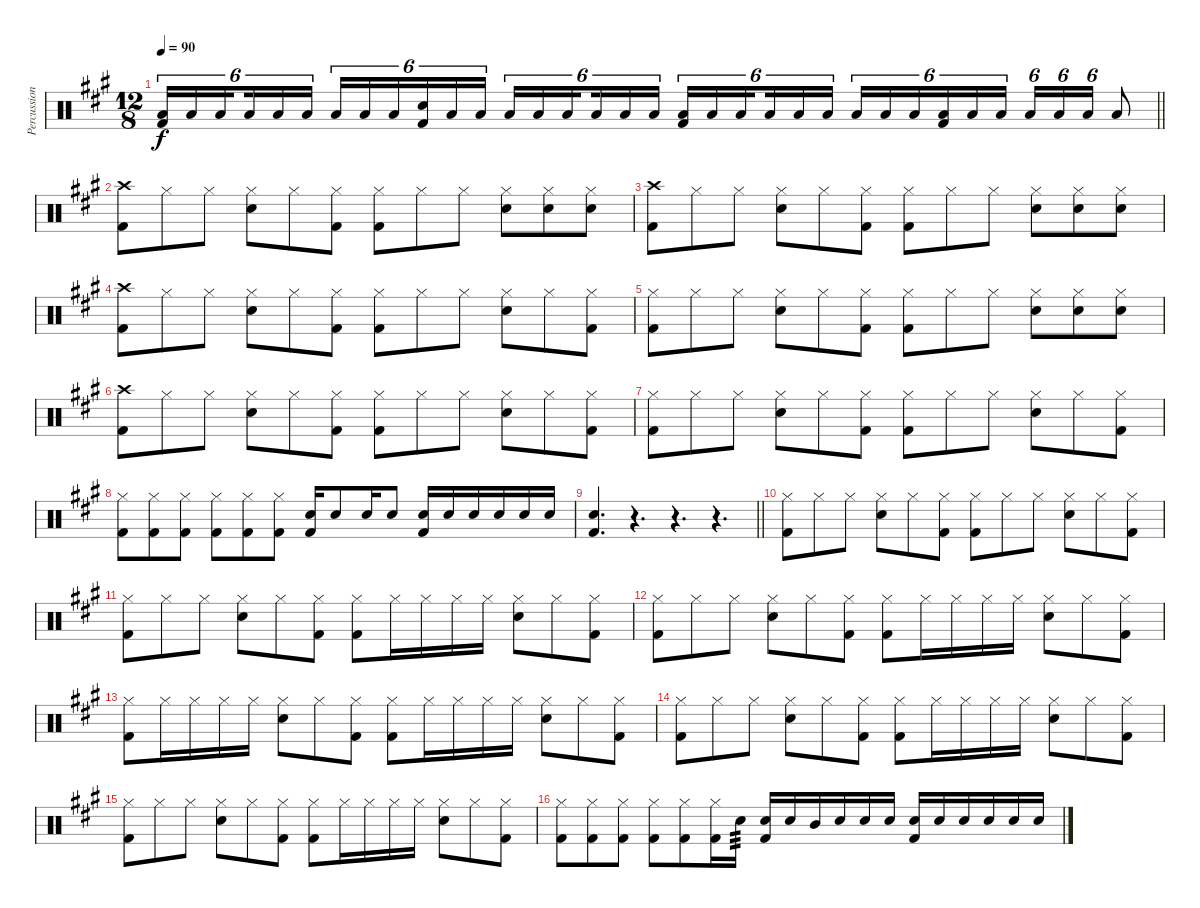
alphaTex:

\track ("Percussion" "Percussion") {instrument percussion}
\staff {score}
\articulation defaults
\ts (12 8)
\tempo 90
\clef neutral
\barLineRight lightlight
\ks a
("Low Tom (hit)" "Kick (hit) 2").16{tu (6 4) dy f} "Low Tom (hit)".16{tu (6 4)} "Low Tom (hit)".16{tu (6 4) beam splitsecondary} "Low Tom (hit)".16{tu (6 4)} "Low Tom (hit)".16{tu (6 4)} "Low Tom (hit)".16{tu (6 4) beam splitsecondary} "Low Tom (hit)".16{tu (6 4)} "Low Tom (hit)".16{tu (6 4)} "Low Tom (hit)".16{tu (6 4)} ("Snare (hit) 2" "Kick (hit) 2").16{tu (6 4)} "Low Tom (hit)".16{tu (6 4)} "Low Tom (hit)".16{tu (6 4) beam splitsecondary} "Low Tom (hit)".16{tu (6 4)} "Low Tom (hit)".16{tu (6 4)} "Low Tom (hit)".16{tu (6 4) beam splitsecondary} "Low Tom (hit)".16{tu (6 4)} "Low Tom (hit)".16{tu (6 4)} "Low Tom (hit)".16{tu (6 4)} ("Low Tom (hit)" "Kick (hit) 2").16{tu (6 4)} "Low Tom (hit)".16{tu (6 4)} "Low Tom (hit)".16{tu (6 4) beam splitsecondary} "Low Tom (hit)".16{tu (6 4)} "Low Tom (hit)".16{tu (6 4)} "Low Tom (hit)".16{tu (6 4) beam splitsecondary} "Low Tom (hit)".16{tu (6 4)} "Low Tom (hit)".16{tu (6 4)} "Low Tom (hit)".16{tu (6 4)} ("Low Floor Tom (hit)" "Kick (hit) 2").16{tu (6 4)} "Low Floor Tom (hit)".16{tu (6 4)} "Low Floor Tom (hit)".16{tu (6 4) beam splitsecondary} "Low Floor Tom (hit)".16{tu (6 4)} "Low Floor Tom (hit)".16{tu (6 4)} "Low Floor Tom (hit)".16{tu (6 4)} "Low Floor Tom (hit)".8 |
("Crash high (hit)" "Kick (hit) 2").8 "Hi-Hat (closed)".8 "Hi-Hat (closed)".8 ("Hi-Hat (closed)" "Snare (hit) 2").8 "Hi-Hat (closed)".8 ("Hi-Hat (closed)" "Kick (hit) 2").8 ("Hi-Hat (closed)" "Kick (hit) 2").8 "Hi-Hat (closed)".8 "Hi-Hat (closed)".8 ("Hi-Hat (closed)" "Snare (hit) 2").8 ("Hi-Hat (closed)" "Snare (hit) 2").8 ("Hi-Hat (closed)" "Snare (hit) 2").8 |
("Crash high (hit)" "Kick (hit) 2").8 "Hi-Hat (closed)".8 "Hi-Hat (closed)".8 ("Hi-Hat (closed)" "Snare (hit) 2").8 "Hi-Hat (closed)".8 ("Hi-Hat (closed)" "Kick (hit) 2").8 ("Hi-Hat (closed)" "Kick (hit) 2").8 "Hi-Hat (closed)".8 "Hi-Hat (closed)".8 ("Hi-Hat (closed)" "Snare (hit) 2").8 ("Hi-Hat (closed)" "Snare (hit) 2").8 ("Hi-Hat (closed)" "Snare (hit) 2").8 |
("Crash high (hit)" "Kick (hit) 2").8 "Hi-Hat (closed)".8 "Hi-Hat (closed)".8 ("Hi-Hat (closed)" "Snare (hit) 2").8 "Hi-Hat (closed)".8 ("Hi-Hat (closed)" "Kick (hit) 2").8 ("Hi-Hat (closed)" "Kick (hit) 2").8 "Hi-Hat (closed)".8 "Hi-Hat (closed)".8 ("Hi-Hat (closed)" "Snare (hit) 2").8 "Hi-Hat (closed)".8 ("Hi-Hat (closed)" "Kick (hit) 2").8 |
("Hi-Hat (closed)" "Kick (hit) 2").8 "Hi-Hat (closed)".8 "Hi-Hat (closed)".8 ("Hi-Hat (closed)" "Snare (hit) 2").8 "Hi-Hat (closed)".8 ("Hi-Hat (closed)" "Kick (hit) 2").8 ("Hi-Hat (closed)" "Kick (hit) 2").8 "Hi-Hat (closed)".8 "Hi-Hat (closed)".8 ("Hi-Hat (closed)" "Snare (hit) 2").8 ("Hi-Hat (closed)" "Snare (hit) 2").8 ("Hi-Hat (closed)" "Snare (hit) 2").8 |
("Crash high (hit)" "Kick (hit) 2").8 "Hi-Hat (closed)".8 "Hi-Hat (closed)".8 ("Hi-Hat (closed)" "Snare (hit) 2").8 "Hi-Hat (closed)".8 ("Hi-Hat (closed)" "Kick (hit) 2").8 ("Hi-Hat (closed)" "Kick (hit) 2").8 "Hi-Hat (closed)".8 "Hi-Hat (closed)".8 ("Hi-Hat (closed)" "Snare (hit) 2").8 "Hi-Hat (closed)".8 ("Hi-Hat (closed)" "Kick (hit) 2").8 |
("Hi-Hat (closed)" "Kick (hit) 2").8 "Hi-Hat (closed)".8 "Hi-Hat (closed)".8 ("Hi-Hat (closed)" "Snare (hit) 2").8 "Hi-Hat (closed)".8 ("Hi-Hat (closed)" "Kick (hit) 2").8 ("Hi-Hat (closed)" "Kick (hit) 2").8 "Hi-Hat (closed)".8 "Hi-Hat (closed)".8 ("Hi-Hat (closed)" "Snare (hit) 2").8 "Hi-Hat (closed)".8 ("Hi-Hat (closed)" "Kick (hit) 2").8 |
("Hi-Hat (closed)" "Kick (hit) 2").8 ("Hi-Hat (closed)" "Kick (hit) 2").8 ("Hi-Hat (closed)" "Kick (hit) 2").8 ("Hi-Hat (closed)" "Kick (hit) 2").8 ("Hi-Hat (closed)" "Kick (hit) 2").8 ("Hi-Hat (closed)" "Kick (hit) 2").8 ("Snare (hit) 2" "Kick (hit) 2").16 "Snare (hit) 2".8 "Snare (hit) 2".16 "Snare (hit) 2".8 ("Snare (hit) 2" "Kick (hit) 2").16 "Snare (hit) 2".16 "Snare (hit) 2".16 "Snare (hit) 2".16 "Snare (hit) 2".16 "Snare (hit) 2".16 |
\barLineRight lightlight
("Snare (hit) 2" "Kick (hit) 2").4{d} r.4{d} r.4{d} r.4{d} |
("Hi-Hat (closed)" "Kick (hit) 2").8 "Hi-Hat (closed)".8 "Hi-Hat (closed)".8 ("Hi-Hat (closed)" "Snare (hit) 2").8 "Hi-Hat (closed)".8 ("Hi-Hat (closed)" "Kick (hit) 2").8 ("Hi-Hat (closed)" "Kick (hit) 2").8 "Hi-Hat (closed)".8 "Hi-Hat (closed)".8 ("Hi-Hat (closed)" "Snare (hit) 2").8 "Hi-Hat (closed)".8 ("Hi-Hat (closed)" "Kick (hit) 2").8 |
("Hi-Hat (closed)" "Kick (hit) 2").8 "Hi-Hat (closed)".8 "Hi-Hat (closed)".8 ("Hi-Hat (closed)" "Snare (hit) 2").8 "Hi-Hat (closed)".8 ("Hi-Hat (closed)" "Kick (hit) 2").8 ("Hi-Hat (closed)" "Kick (hit) 2").8 "Hi-Hat (closed)".16 "Hi-Hat (closed)".16 "Hi-Hat (closed)".16 "Hi-Hat (closed)".16 ("Hi-Hat (closed)" "Snare (hit) 2").8 "Hi-Hat (closed)".8 ("Hi-Hat (closed)" "Kick (hit) 2").8 |
("Hi-Hat (closed)" "Kick (hit) 2").8 "Hi-Hat (closed)".8 "Hi-Hat (closed)".8 ("Hi-Hat (closed)" "Snare (hit) 2").8 "Hi-Hat (closed)".8 ("Hi-Hat (closed)" "Kick (hit) 2").8 ("Hi-Hat (closed)" "Kick (hit) 2").8 "Hi-Hat (closed)".16 "Hi-Hat (closed)".16 "Hi-Hat (closed)".16 "Hi-Hat (closed)".16 ("Hi-Hat (closed)" "Snare (hit) 2").8 "Hi-Hat (closed)".8 ("Hi-Hat (closed)" "Kick (hit) 2").8 |
("Hi-Hat (closed)" "Kick (hit) 2").8 "Hi-Hat (closed)".16 "Hi-Hat (closed)".16 "Hi-Hat (closed)".16 "Hi-Hat (closed)".16 ("Hi-Hat (closed)" "Snare (hit) 2").8 "Hi-Hat (closed)".8 ("Hi-Hat (closed)" "Kick (hit) 2").8 ("Hi-Hat (closed)" "Kick (hit) 2").8 "Hi-Hat (closed)".16 "Hi-Hat (closed)".16 "Hi-Hat (closed)".16 "Hi-Hat (closed)".16 ("Hi-Hat (closed)" "Snare (hit) 2").8 "Hi-Hat (closed)".8 ("Hi-Hat (closed)" "Kick (hit) 2").8 |
("Hi-Hat (closed)" "Kick (hit) 2").8 "Hi-Hat (closed)".8 "Hi-Hat (closed)".8 ("Hi-Hat (closed)" "Snare (hit) 2").8 "Hi-Hat (closed)".8 ("Hi-Hat (closed)" "Kick (hit) 2").8 ("Hi-Hat (closed)" "Kick (hit) 2").8 "Hi-Hat (closed)".16 "Hi-Hat (closed)".16 "Hi-Hat (closed)".16 "Hi-Hat (closed)".16 ("Hi-Hat (closed)" "Snare (hit) 2").8 "Hi-Hat (closed)".8 ("Hi-Hat (closed)" "Kick (hit) 2").8 |
("Hi-Hat (closed)" "Kick (hit) 2").8 "Hi-Hat (closed)".8 "Hi-Hat (closed)".8 ("Hi-Hat (closed)" "Snare (hit) 2").8 "Hi-Hat (closed)".8 ("Hi-Hat (closed)" "Kick (hit) 2").8 ("Hi-Hat (closed)" "Kick (hit) 2").8 "Hi-Hat (closed)".16 "Hi-Hat (closed)".16 "Hi-Hat (closed)".16 "Hi-Hat (closed)".16 ("Hi-Hat (closed)" "Snare (hit) 2").8 "Hi-Hat (closed)".8 ("Hi-Hat (closed)" "Kick (hit) 2").8 |
("Hi-Hat (closed)" "Kick (hit) 2").8 ("Hi-Hat (closed)" "Kick (hit) 2").8 ("Hi-Hat (closed)" "Kick (hit) 2").8 ("Hi-Hat (closed)" "Kick (hit) 2").8 ("Hi-Hat (closed)" "Kick (hit) 2").8 ("Hi-Hat (closed)" "Kick (hit) 2").16 "Snare (hit) 2".16{tp 3} ("Snare (hit) 2" "Kick (hit) 2").16 "Snare (hit) 2".16 "Mid Tom (hit)".16 "Snare (hit) 2".16 "Snare (hit) 2".16 "Snare (hit) 2".16 ("Snare (hit) 2" "Kick (hit) 2").16 "Snare (hit) 2".16 "Snare (hit) 2".16 "Snare (hit) 2".16 "Snare (hit) 2".16 "Snare (hit) 2".16
